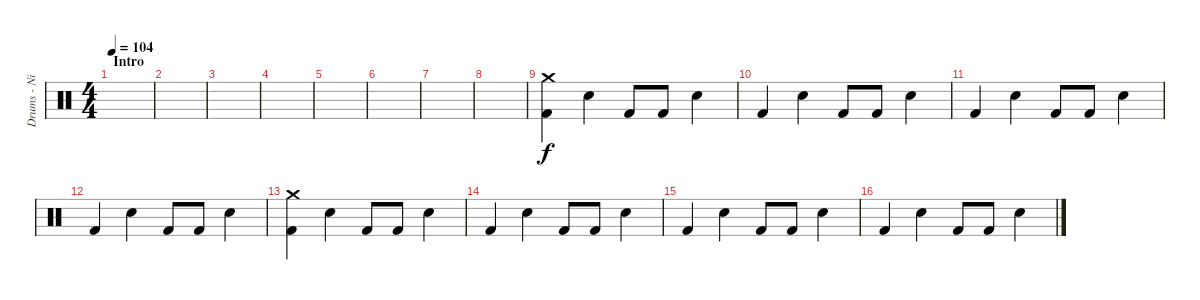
\track ("Drums - Nick Jago" "Drums - Ni") {instrument percussion}
\staff {score}
\articulation defaults
\ts (4 4)
\section ("" "Intro")
\tempo 104
\clef neutral
\ks c
|
|
|
|
|
|
|
|
("Crash medium (hit)" "Kick (hit) 2").4 "Electric Snare (hit)".4 "Kick (hit) 2".8 "Kick (hit) 2".8 "Electric Snare (hit)".4 |
"Kick (hit) 2".4 "Electric Snare (hit)".4 "Kick (hit) 2".8 "Kick (hit) 2".8 "Electric Snare (hit)".4 |
"Kick (hit) 2".4 "Electric Snare (hit)".4 "Kick (hit) 2".8 "Kick (hit) 2".8 "Electric Snare (hit)".4 |
"Kick (hit) 2".4 "Electric Snare (hit)".4 "Kick (hit) 2".8 "Kick (hit) 2".8 "Electric Snare (hit)".4 |
("Crash medium (hit)" "Kick (hit) 2").4 "Electric Snare (hit)".4 "Kick (hit) 2".8 "Kick (hit) 2".8 "Electric Snare (hit)".4 |
"Kick (hit) 2".4 "Electric Snare (hit)".4 "Kick (hit) 2".8 "Kick (hit) 2".8 "Electric Snare (hit)".4 |
"Kick (hit) 2".4 "Electric Snare (hit)".4 "Kick (hit) 2".8 "Kick (hit) 2".8 "Electric Snare (hit)".4 |
"Kick (hit) 2".4 "Electric Snare (hit)".4 "Kick (hit) 2".8 "Kick (hit) 2".8 "Electric Snare (hit)".4
